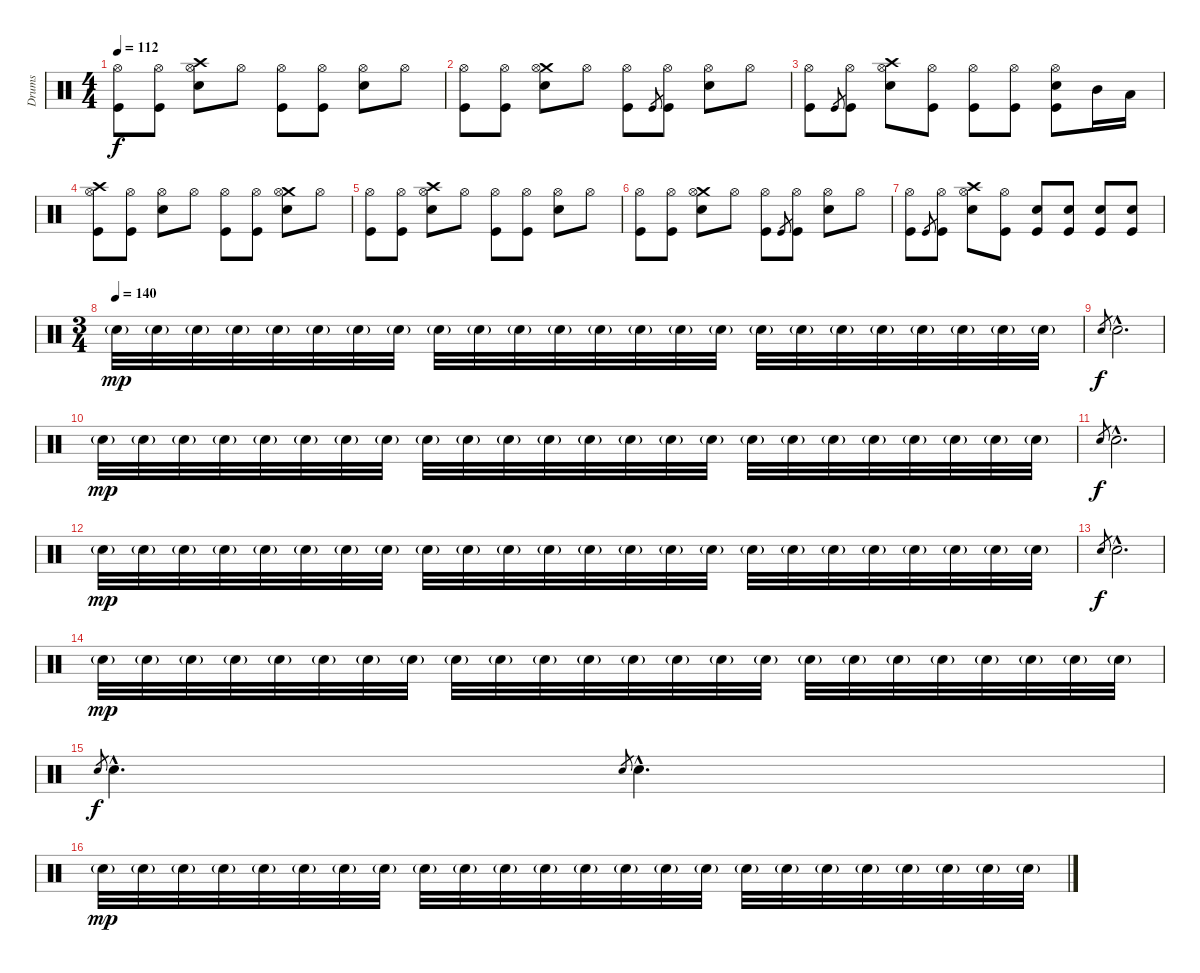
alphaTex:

\track ("Drums" "Drums") {instrument percussion}
\staff {score}
\articulation defaults
\ts (4 4)
\tempo 112
\clef neutral
\ks c
("Hi-Hat (open)" "Kick (hit)").8{dy f} ("Hi-Hat (open)" "Kick (hit)").8 ("Crash high (hit)" "Hi-Hat (open)" "Snare (hit) 2").8 "Hi-Hat (open)".8 ("Hi-Hat (open)" "Kick (hit)").8 ("Hi-Hat (open)" "Kick (hit)").8 ("Hi-Hat (open)" "Snare (hit) 2").8 "Hi-Hat (open)".8 |
("Hi-Hat (open)" "Kick (hit)").8 ("Hi-Hat (open)" "Kick (hit)").8 ("Crash medium (hit)" "Hi-Hat (open)" "Snare (hit) 2").8 "Hi-Hat (open)".8 ("Hi-Hat (open)" "Kick (hit)").8 "Kick (hit)".8{gr} ("Hi-Hat (open)" "Kick (hit)").8 ("Hi-Hat (open)" "Snare (hit) 2").8 "Hi-Hat (open)".8 |
("Hi-Hat (open)" "Kick (hit)").8 "Kick (hit)".8{gr} ("Hi-Hat (open)" "Kick (hit)").8 ("Crash high (hit)" "Hi-Hat (open)" "Snare (hit) 2").8 ("Hi-Hat (open)" "Kick (hit)").8 ("Hi-Hat (open)" "Kick (hit)").8 ("Hi-Hat (open)" "Kick (hit)").8 ("Hi-Hat (open)" "Snare (hit) 2" "Kick (hit)").8 "Mid Tom (hit)".16 "Low Tom (hit)".16 |
("Crash high (hit)" "Hi-Hat (open)" "Kick (hit)").8 ("Hi-Hat (open)" "Kick (hit)").8 ("Hi-Hat (open)" "Snare (hit) 2").8 "Hi-Hat (open)".8 ("Hi-Hat (open)" "Kick (hit)").8 ("Hi-Hat (open)" "Kick (hit)").8 ("Crash medium (hit)" "Hi-Hat (open)" "Snare (hit) 2").8 "Hi-Hat (open)".8 |
("Hi-Hat (open)" "Kick (hit)").8 ("Hi-Hat (open)" "Kick (hit)").8 ("Crash high (hit)" "Hi-Hat (open)" "Snare (hit) 2").8 "Hi-Hat (open)".8 ("Hi-Hat (open)" "Kick (hit)").8 ("Hi-Hat (open)" "Kick (hit)").8 ("Hi-Hat (open)" "Snare (hit) 2").8 "Hi-Hat (open)".8 |
("Hi-Hat (open)" "Kick (hit)").8 ("Hi-Hat (open)" "Kick (hit)").8 ("Crash medium (hit)" "Hi-Hat (open)" "Snare (hit) 2").8 "Hi-Hat (open)".8 ("Hi-Hat (open)" "Kick (hit)").8 "Kick (hit)".8{gr} ("Hi-Hat (open)" "Kick (hit)").8 ("Hi-Hat (open)" "Snare (hit) 2").8 "Hi-Hat (open)".8 |
("Hi-Hat (open)" "Kick (hit)").8{volume 10} "Kick (hit)".8{gr} ("Hi-Hat (open)" "Kick (hit)").8 ("Crash high (hit)" "Hi-Hat (open)" "Snare (hit) 2").8 ("Hi-Hat (open)" "Kick (hit)").8 ("Snare (hit) 2" "Kick (hit)").8 ("Snare (hit) 2" "Kick (hit)").8 ("Snare (hit) 2" "Kick (hit)").8 ("Snare (hit) 2" "Kick (hit)").8 |
\ts (3 4)
\tempo (140)
"Snare (hit) 2"{g}.32{dy mp volume 10} "Snare (hit) 2"{g}.32 "Snare (hit) 2"{g}.32 "Snare (hit) 2"{g}.32 "Snare (hit) 2"{g}.32 "Snare (hit) 2"{g}.32 "Snare (hit) 2"{g}.32 "Snare (hit) 2"{g}.32 "Snare (hit) 2"{g}.32 "Snare (hit) 2"{g}.32 "Snare (hit) 2"{g}.32 "Snare (hit) 2"{g}.32 "Snare (hit) 2"{g}.32 "Snare (hit) 2"{g}.32 "Snare (hit) 2"{g}.32 "Snare (hit) 2"{g}.32 "Snare (hit) 2"{g}.32 "Snare (hit) 2"{g}.32 "Snare (hit) 2"{g}.32 "Snare (hit) 2"{g}.32 "Snare (hit) 2"{g}.32 "Snare (hit) 2"{g}.32 "Snare (hit) 2"{g}.32 "Snare (hit) 2"{g}.32 |
"Snare (hit) 2".8{gr dy f} "Snare (hit) 2"{hac}.2{d} |
"Snare (hit) 2"{g}.32{dy mp} "Snare (hit) 2"{g}.32 "Snare (hit) 2"{g}.32 "Snare (hit) 2"{g}.32 "Snare (hit) 2"{g}.32 "Snare (hit) 2"{g}.32 "Snare (hit) 2"{g}.32 "Snare (hit) 2"{g}.32 "Snare (hit) 2"{g}.32 "Snare (hit) 2"{g}.32 "Snare (hit) 2"{g}.32 "Snare (hit) 2"{g}.32 "Snare (hit) 2"{g}.32 "Snare (hit) 2"{g}.32 "Snare (hit) 2"{g}.32 "Snare (hit) 2"{g}.32 "Snare (hit) 2"{g}.32 "Snare (hit) 2"{g}.32 "Snare (hit) 2"{g}.32 "Snare (hit) 2"{g}.32 "Snare (hit) 2"{g}.32 "Snare (hit) 2"{g}.32 "Snare (hit) 2"{g}.32 "Snare (hit) 2"{g}.32 |
"Snare (hit) 2".8{gr dy f} "Snare (hit) 2"{hac}.2{d} |
"Snare (hit) 2"{g}.32{dy mp} "Snare (hit) 2"{g}.32 "Snare (hit) 2"{g}.32 "Snare (hit) 2"{g}.32 "Snare (hit) 2"{g}.32 "Snare (hit) 2"{g}.32 "Snare (hit) 2"{g}.32 "Snare (hit) 2"{g}.32 "Snare (hit) 2"{g}.32 "Snare (hit) 2"{g}.32 "Snare (hit) 2"{g}.32 "Snare (hit) 2"{g}.32 "Snare (hit) 2"{g}.32 "Snare (hit) 2"{g}.32 "Snare (hit) 2"{g}.32 "Snare (hit) 2"{g}.32 "Snare (hit) 2"{g}.32 "Snare (hit) 2"{g}.32 "Snare (hit) 2"{g}.32 "Snare (hit) 2"{g}.32 "Snare (hit) 2"{g}.32 "Snare (hit) 2"{g}.32 "Snare (hit) 2"{g}.32 "Snare (hit) 2"{g}.32 |
"Snare (hit) 2".8{gr dy f} "Snare (hit) 2"{hac}.2{d} |
"Snare (hit) 2"{g}.32{dy mp} "Snare (hit) 2"{g}.32 "Snare (hit) 2"{g}.32 "Snare (hit) 2"{g}.32 "Snare (hit) 2"{g}.32 "Snare (hit) 2"{g}.32 "Snare (hit) 2"{g}.32 "Snare (hit) 2"{g}.32 "Snare (hit) 2"{g}.32 "Snare (hit) 2"{g}.32 "Snare (hit) 2"{g}.32 "Snare (hit) 2"{g}.32 "Snare (hit) 2"{g}.32 "Snare (hit) 2"{g}.32 "Snare (hit) 2"{g}.32 "Snare (hit) 2"{g}.32 "Snare (hit) 2"{g}.32 "Snare (hit) 2"{g}.32 "Snare (hit) 2"{g}.32 "Snare (hit) 2"{g}.32 "Snare (hit) 2"{g}.32 "Snare (hit) 2"{g}.32 "Snare (hit) 2"{g}.32 "Snare (hit) 2"{g}.32 |
"Snare (hit) 2".8{gr dy f} "Snare (hit) 2"{hac}.4{d} "Snare (hit) 2".8{gr} "Snare (hit) 2"{hac}.4{d} |
"Snare (hit) 2"{g}.32{dy mp} "Snare (hit) 2"{g}.32 "Snare (hit) 2"{g}.32 "Snare (hit) 2"{g}.32 "Snare (hit) 2"{g}.32 "Snare (hit) 2"{g}.32 "Snare (hit) 2"{g}.32 "Snare (hit) 2"{g}.32 "Snare (hit) 2"{g}.32 "Snare (hit) 2"{g}.32 "Snare (hit) 2"{g}.32 "Snare (hit) 2"{g}.32 "Snare (hit) 2"{g}.32 "Snare (hit) 2"{g}.32 "Snare (hit) 2"{g}.32 "Snare (hit) 2"{g}.32 "Snare (hit) 2"{g}.32 "Snare (hit) 2"{g}.32 "Snare (hit) 2"{g}.32 "Snare (hit) 2"{g}.32 "Snare (hit) 2"{g}.32 "Snare (hit) 2"{g}.32 "Snare (hit) 2"{g}.32 "Snare (hit) 2"{g}.32
